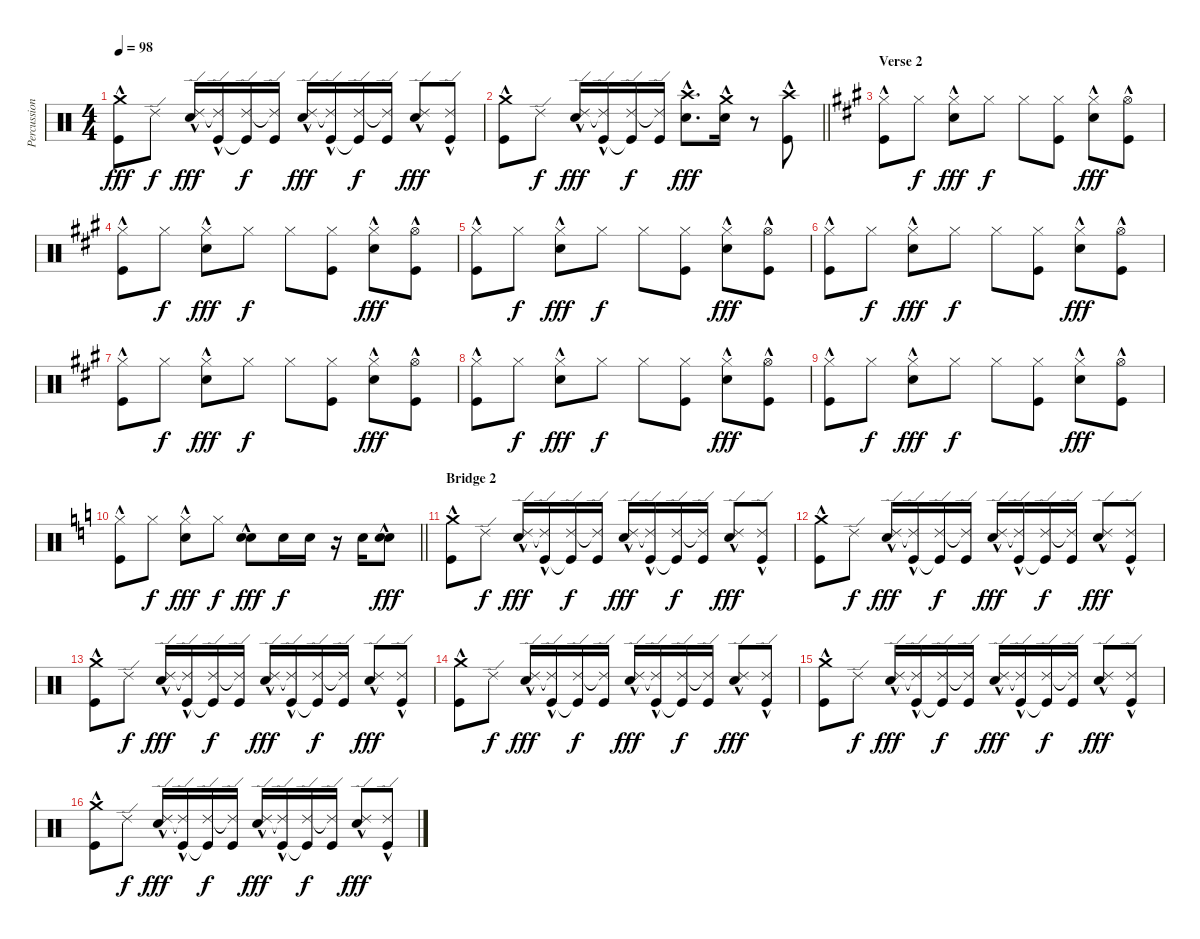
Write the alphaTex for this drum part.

\track ("Percussion -- Joey Kramer" "Percussion") {instrument percussion}
\staff {score}
\articulation defaults
\ts (4 4)
\tempo 98
\clef neutral
\ks c
("Crash medium (hit)"{hac} "Kick (hit)"{hac}).8{dy fff} "Ride (edge) 2".8{dy f} ("Ride (edge) 2" "Snare (hit) 2"{hac}).16{dy fff} ("Ride (edge) 2"{t} "Kick (hit)"{hac}).16 ("Ride (edge) 2" "Kick (hit)"{t}).16{dy f} ("Ride (edge) 2"{t} "Kick (hit)").16 ("Ride (edge) 2" "Snare (hit) 2"{hac}).16{dy fff} ("Ride (edge) 2"{t} "Kick (hit)"{hac}).16 ("Ride (edge) 2" "Kick (hit)"{t}).16{dy f} ("Ride (edge) 2"{t} "Kick (hit)").16 ("Ride (edge) 2" "Snare (hit) 2"{hac}).8{dy fff} ("Ride (edge) 2" "Kick (hit)"{hac}).8 |
\barLineRight lightlight
("Crash medium (hit)"{hac} "Kick (hit)"{hac}).8 "Ride (edge) 2".8{dy f} ("Ride (edge) 2" "Snare (hit) 2"{hac}).16{dy fff} ("Ride (edge) 2"{t} "Kick (hit)"{hac}).16 ("Ride (edge) 2" "Kick (hit)"{t}).16{dy f} ("Ride (edge) 2"{t} "Kick (hit)").16 ("Crash high (hit)"{hac} "Snare (hit) 2"{hac}).8{d dy fff} ("Crash medium (hit)"{hac} "Snare (hit) 2"{hac}).16 r.8 ("Crash high (hit)"{hac} "Kick (hit)"{hac}).8 |
\section ("" "Verse 2")
\ks a
("Hi-Hat (closed)" "Kick (hit)"{hac}).8 "Hi-Hat (closed)".8{dy f} ("Hi-Hat (closed)" "Snare (hit) 2"{hac}).8{dy fff} "Hi-Hat (closed)".8{dy f} "Hi-Hat (closed)".8 ("Hi-Hat (closed)" "Kick (hit)").8 ("Hi-Hat (closed)" "Snare (hit) 2"{hac}).8{dy fff} ("Hi-Hat (open)"{hac} "Kick (hit)"{hac}).8 |
("Hi-Hat (closed)" "Kick (hit)"{hac}).8 "Hi-Hat (closed)".8{dy f} ("Hi-Hat (closed)" "Snare (hit) 2"{hac}).8{dy fff} "Hi-Hat (closed)".8{dy f} "Hi-Hat (closed)".8 ("Hi-Hat (closed)" "Kick (hit)").8 ("Hi-Hat (closed)" "Snare (hit) 2"{hac}).8{dy fff} ("Hi-Hat (open)"{hac} "Kick (hit)"{hac}).8 |
("Hi-Hat (closed)" "Kick (hit)"{hac}).8 "Hi-Hat (closed)".8{dy f} ("Hi-Hat (closed)" "Snare (hit) 2"{hac}).8{dy fff} "Hi-Hat (closed)".8{dy f} "Hi-Hat (closed)".8 ("Hi-Hat (closed)" "Kick (hit)").8 ("Hi-Hat (closed)" "Snare (hit) 2"{hac}).8{dy fff} ("Hi-Hat (open)"{hac} "Kick (hit)"{hac}).8 |
("Hi-Hat (closed)" "Kick (hit)"{hac}).8 "Hi-Hat (closed)".8{dy f} ("Hi-Hat (closed)" "Snare (hit) 2"{hac}).8{dy fff} "Hi-Hat (closed)".8{dy f} "Hi-Hat (closed)".8 ("Hi-Hat (closed)" "Kick (hit)").8 ("Hi-Hat (closed)" "Snare (hit) 2"{hac}).8{dy fff} ("Hi-Hat (open)"{hac} "Kick (hit)"{hac}).8 |
("Hi-Hat (closed)" "Kick (hit)"{hac}).8 "Hi-Hat (closed)".8{dy f} ("Hi-Hat (closed)" "Snare (hit) 2"{hac}).8{dy fff} "Hi-Hat (closed)".8{dy f} "Hi-Hat (closed)".8 ("Hi-Hat (closed)" "Kick (hit)").8 ("Hi-Hat (closed)" "Snare (hit) 2"{hac}).8{dy fff} ("Hi-Hat (open)"{hac} "Kick (hit)"{hac}).8 |
("Hi-Hat (closed)" "Kick (hit)"{hac}).8 "Hi-Hat (closed)".8{dy f} ("Hi-Hat (closed)" "Snare (hit) 2"{hac}).8{dy fff} "Hi-Hat (closed)".8{dy f} "Hi-Hat (closed)".8 ("Hi-Hat (closed)" "Kick (hit)").8 ("Hi-Hat (closed)" "Snare (hit) 2"{hac}).8{dy fff} ("Hi-Hat (open)"{hac} "Kick (hit)"{hac}).8 |
("Hi-Hat (closed)" "Kick (hit)"{hac}).8 "Hi-Hat (closed)".8{dy f} ("Hi-Hat (closed)" "Snare (hit) 2"{hac}).8{dy fff} "Hi-Hat (closed)".8{dy f} "Hi-Hat (closed)".8 ("Hi-Hat (closed)" "Kick (hit)").8 ("Hi-Hat (closed)" "Snare (hit) 2"{hac}).8{dy fff} ("Hi-Hat (open)"{hac} "Kick (hit)"{hac}).8 |
\barLineRight lightlight
\ks c
("Hi-Hat (closed)" "Kick (hit)"{hac}).8 "Hi-Hat (closed)".8{dy f} ("Hi-Hat (closed)" "Snare (hit) 2"{hac}).8{dy fff} "Hi-Hat (closed)".8{dy f} ("Snare (hit) 2"{hac} "Snare (hit) 2"{hac}).8{dy fff} "Snare (hit) 2".16{dy f} "Snare (hit) 2".16 r.16 "Snare (hit) 2".16 ("Snare (hit) 2"{hac} "Snare (hit) 2"{hac}).8{dy fff} |
\section ("" "Bridge 2")
("Crash medium (hit)"{hac} "Kick (hit)"{hac}).8 "Ride (edge) 2".8{dy f} ("Ride (edge) 2" "Snare (hit) 2"{hac}).16{dy fff} ("Ride (edge) 2"{t} "Kick (hit)"{hac}).16 ("Ride (edge) 2" "Kick (hit)"{t}).16{dy f} ("Ride (edge) 2"{t} "Kick (hit)").16 ("Ride (edge) 2" "Snare (hit) 2"{hac}).16{dy fff} ("Ride (edge) 2"{t} "Kick (hit)"{hac}).16 ("Ride (edge) 2" "Kick (hit)"{t}).16{dy f} ("Ride (edge) 2"{t} "Kick (hit)").16 ("Ride (edge) 2" "Snare (hit) 2"{hac}).8{dy fff} ("Ride (edge) 2" "Kick (hit)"{hac}).8 |
("Crash medium (hit)"{hac} "Kick (hit)"{hac}).8 "Ride (edge) 2".8{dy f} ("Ride (edge) 2" "Snare (hit) 2"{hac}).16{dy fff} ("Ride (edge) 2"{t} "Kick (hit)"{hac}).16 ("Ride (edge) 2" "Kick (hit)"{t}).16{dy f} ("Ride (edge) 2"{t} "Kick (hit)").16 ("Ride (edge) 2" "Snare (hit) 2"{hac}).16{dy fff} ("Ride (edge) 2"{t} "Kick (hit)"{hac}).16 ("Ride (edge) 2" "Kick (hit)"{t}).16{dy f} ("Ride (edge) 2"{t} "Kick (hit)").16 ("Ride (edge) 2" "Snare (hit) 2"{hac}).8{dy fff} ("Ride (edge) 2" "Kick (hit)"{hac}).8 |
("Crash medium (hit)"{hac} "Kick (hit)"{hac}).8 "Ride (edge) 2".8{dy f} ("Ride (edge) 2" "Snare (hit) 2"{hac}).16{dy fff} ("Ride (edge) 2"{t} "Kick (hit)"{hac}).16 ("Ride (edge) 2" "Kick (hit)"{t}).16{dy f} ("Ride (edge) 2"{t} "Kick (hit)").16 ("Ride (edge) 2" "Snare (hit) 2"{hac}).16{dy fff} ("Ride (edge) 2"{t} "Kick (hit)"{hac}).16 ("Ride (edge) 2" "Kick (hit)"{t}).16{dy f} ("Ride (edge) 2"{t} "Kick (hit)").16 ("Ride (edge) 2" "Snare (hit) 2"{hac}).8{dy fff} ("Ride (edge) 2" "Kick (hit)"{hac}).8 |
("Crash medium (hit)"{hac} "Kick (hit)"{hac}).8 "Ride (edge) 2".8{dy f} ("Ride (edge) 2" "Snare (hit) 2"{hac}).16{dy fff} ("Ride (edge) 2"{t} "Kick (hit)"{hac}).16 ("Ride (edge) 2" "Kick (hit)"{t}).16{dy f} ("Ride (edge) 2"{t} "Kick (hit)").16 ("Ride (edge) 2" "Snare (hit) 2"{hac}).16{dy fff} ("Ride (edge) 2"{t} "Kick (hit)"{hac}).16 ("Ride (edge) 2" "Kick (hit)"{t}).16{dy f} ("Ride (edge) 2"{t} "Kick (hit)").16 ("Ride (edge) 2" "Snare (hit) 2"{hac}).8{dy fff} ("Ride (edge) 2" "Kick (hit)"{hac}).8 |
("Crash medium (hit)"{hac} "Kick (hit)"{hac}).8 "Ride (edge) 2".8{dy f} ("Ride (edge) 2" "Snare (hit) 2"{hac}).16{dy fff} ("Ride (edge) 2"{t} "Kick (hit)"{hac}).16 ("Ride (edge) 2" "Kick (hit)"{t}).16{dy f} ("Ride (edge) 2"{t} "Kick (hit)").16 ("Ride (edge) 2" "Snare (hit) 2"{hac}).16{dy fff} ("Ride (edge) 2"{t} "Kick (hit)"{hac}).16 ("Ride (edge) 2" "Kick (hit)"{t}).16{dy f} ("Ride (edge) 2"{t} "Kick (hit)").16 ("Ride (edge) 2" "Snare (hit) 2"{hac}).8{dy fff} ("Ride (edge) 2" "Kick (hit)"{hac}).8 |
("Crash medium (hit)"{hac} "Kick (hit)"{hac}).8 "Ride (edge) 2".8{dy f} ("Ride (edge) 2" "Snare (hit) 2"{hac}).16{dy fff} ("Ride (edge) 2"{t} "Kick (hit)"{hac}).16 ("Ride (edge) 2" "Kick (hit)"{t}).16{dy f} ("Ride (edge) 2"{t} "Kick (hit)").16 ("Ride (edge) 2" "Snare (hit) 2"{hac}).16{dy fff} ("Ride (edge) 2"{t} "Kick (hit)"{hac}).16 ("Ride (edge) 2" "Kick (hit)"{t}).16{dy f} ("Ride (edge) 2"{t} "Kick (hit)").16 ("Ride (edge) 2" "Snare (hit) 2"{hac}).8{dy fff} ("Ride (edge) 2" "Kick (hit)"{hac}).8
